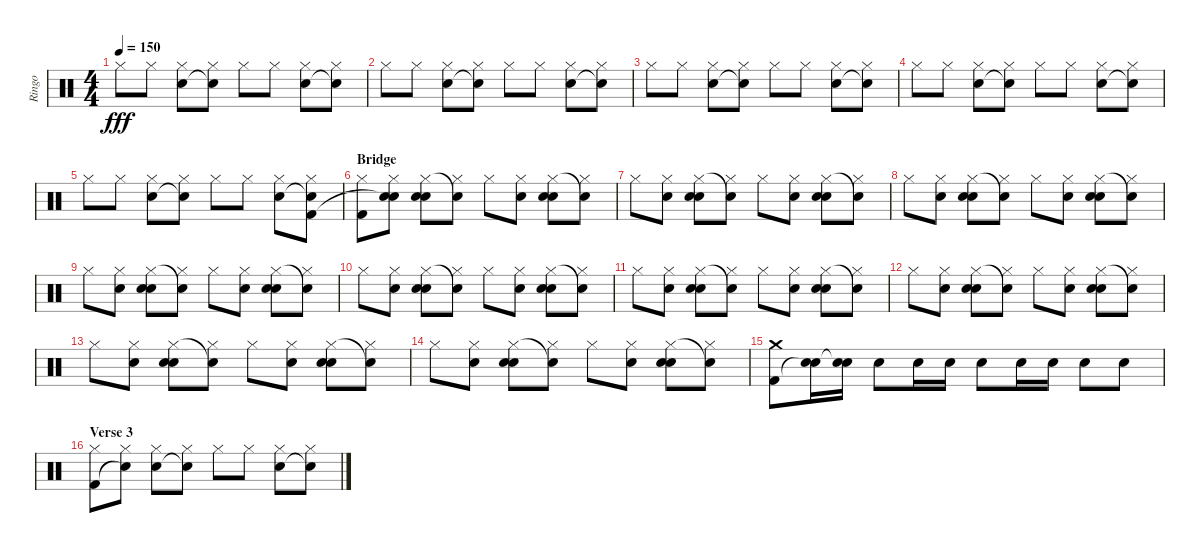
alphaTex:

\track ("Ringo" "Ringo") {instrument percussion}
\staff {score}
\articulation defaults
\ts (4 4)
\tempo 150
\clef neutral
\ks c "Hi-Hat (closed)".8{dy fff} "Hi-Hat (closed)".8
("Hi-Hat (closed)" "Snare (hit) 2").8 ("Hi-Hat (closed)" "Snare (hit)"{t}).8 "Hi-Hat (closed)".8 "Hi-Hat (closed)".8 ("Hi-Hat (closed)" "Snare (hit) 2").8 ("Hi-Hat (closed)" "Snare (hit)"{t}).8 |
"Hi-Hat (closed)".8 "Hi-Hat (closed)".8 ("Hi-Hat (closed)" "Snare (hit) 2").8 ("Hi-Hat (closed)" "Snare (hit)"{t}).8 "Hi-Hat (closed)".8 "Hi-Hat (closed)".8 ("Hi-Hat (closed)" "Snare (hit) 2").8 ("Hi-Hat (closed)" "Snare (hit)"{t}).8 |
"Hi-Hat (closed)".8 "Hi-Hat (closed)".8 ("Hi-Hat (closed)" "Snare (hit) 2").8 ("Hi-Hat (closed)" "Snare (hit)"{t}).8 "Hi-Hat (closed)".8 "Hi-Hat (closed)".8 ("Hi-Hat (closed)" "Snare (hit) 2").8 ("Hi-Hat (closed)" "Snare (hit)"{t}).8 |
"Hi-Hat (closed)".8 "Hi-Hat (closed)".8 ("Hi-Hat (closed)" "Snare (hit) 2").8 ("Hi-Hat (closed)" "Snare (hit)"{t}).8 "Hi-Hat (closed)".8 "Hi-Hat (closed)".8 ("Hi-Hat (closed)" "Snare (hit) 2").8 ("Hi-Hat (closed)" "Snare (hit)"{t}).8 |
"Hi-Hat (closed)".8 "Hi-Hat (closed)".8 ("Hi-Hat (closed)" "Snare (hit) 2").8 ("Hi-Hat (closed)" "Snare (hit)"{t}).8 "Hi-Hat (closed)".8 "Hi-Hat (closed)".8 ("Hi-Hat (closed)" "Snare (hit) 2").8 ("Hi-Hat (closed)" "Snare (hit)"{t} "Kick (hit) 2").8 |
\section ("" "Bridge")
("Hi-Hat (closed)" "Kick (hit) 2").8 ("Hand Clap (hit)" "Hi-Hat (closed)" "Snare (hit)"{t}).8 ("Hand Clap (hit)" "Hi-Hat (closed)" "Snare (hit) 2").8 ("Hi-Hat (closed)" "Snare (hit)"{t}).8 "Hi-Hat (closed)".8 ("Hand Clap (hit)" "Hi-Hat (closed)").8 ("Hand Clap (hit)" "Hi-Hat (closed)" "Snare (hit) 2").8 ("Hi-Hat (closed)" "Snare (hit)"{t}).8 |
"Hi-Hat (closed)".8 ("Hand Clap (hit)" "Hi-Hat (closed)").8 ("Hand Clap (hit)" "Hi-Hat (closed)" "Snare (hit) 2").8 ("Hi-Hat (closed)" "Snare (hit)"{t}).8 "Hi-Hat (closed)".8 ("Hand Clap (hit)" "Hi-Hat (closed)").8 ("Hand Clap (hit)" "Hi-Hat (closed)" "Snare (hit) 2").8 ("Hi-Hat (closed)" "Snare (hit)"{t}).8 |
"Hi-Hat (closed)".8 ("Hand Clap (hit)" "Hi-Hat (closed)").8 ("Hand Clap (hit)" "Hi-Hat (closed)" "Snare (hit) 2").8 ("Hi-Hat (closed)" "Snare (hit)"{t}).8 "Hi-Hat (closed)".8 ("Hand Clap (hit)" "Hi-Hat (closed)").8 ("Hand Clap (hit)" "Hi-Hat (closed)" "Snare (hit) 2").8 ("Hi-Hat (closed)" "Snare (hit)"{t}).8 |
"Hi-Hat (closed)".8 ("Hand Clap (hit)" "Hi-Hat (closed)").8 ("Hand Clap (hit)" "Hi-Hat (closed)" "Snare (hit) 2").8 ("Hi-Hat (closed)" "Snare (hit)"{t}).8 "Hi-Hat (closed)".8 ("Hand Clap (hit)" "Hi-Hat (closed)").8 ("Hand Clap (hit)" "Hi-Hat (closed)" "Snare (hit) 2").8 ("Hi-Hat (closed)" "Snare (hit)"{t}).8 |
"Hi-Hat (closed)".8 ("Hand Clap (hit)" "Hi-Hat (closed)").8 ("Hand Clap (hit)" "Hi-Hat (closed)" "Snare (hit) 2").8 ("Hi-Hat (closed)" "Snare (hit)"{t}).8 "Hi-Hat (closed)".8 ("Hand Clap (hit)" "Hi-Hat (closed)").8 ("Hand Clap (hit)" "Hi-Hat (closed)" "Snare (hit) 2").8 ("Hi-Hat (closed)" "Snare (hit)"{t}).8 |
"Hi-Hat (closed)".8 ("Hand Clap (hit)" "Hi-Hat (closed)").8 ("Hand Clap (hit)" "Hi-Hat (closed)" "Snare (hit) 2").8 ("Hi-Hat (closed)" "Snare (hit)"{t}).8 "Hi-Hat (closed)".8 ("Hand Clap (hit)" "Hi-Hat (closed)").8 ("Hand Clap (hit)" "Hi-Hat (closed)" "Snare (hit) 2").8 ("Hi-Hat (closed)" "Snare (hit)"{t}).8 |
"Hi-Hat (closed)".8 ("Hand Clap (hit)" "Hi-Hat (closed)").8 ("Hand Clap (hit)" "Hi-Hat (closed)" "Snare (hit) 2").8 ("Hi-Hat (closed)" "Snare (hit)"{t}).8 "Hi-Hat (closed)".8 ("Hand Clap (hit)" "Hi-Hat (closed)").8 ("Hand Clap (hit)" "Hi-Hat (closed)" "Snare (hit) 2").8 ("Hi-Hat (closed)" "Snare (hit)"{t}).8 |
"Hi-Hat (closed)".8 ("Hand Clap (hit)" "Hi-Hat (closed)").8 ("Hand Clap (hit)" "Hi-Hat (closed)" "Snare (hit) 2").8 ("Hi-Hat (closed)" "Snare (hit)"{t}).8 "Hi-Hat (closed)".8 ("Hand Clap (hit)" "Hi-Hat (closed)").8 ("Hand Clap (hit)" "Hi-Hat (closed)" "Snare (hit) 2").8 ("Hi-Hat (closed)" "Snare (hit)"{t}).8 |
"Hi-Hat (closed)".8 ("Hand Clap (hit)" "Hi-Hat (closed)").8 ("Hand Clap (hit)" "Hi-Hat (closed)" "Snare (hit) 2").8 ("Hi-Hat (closed)" "Snare (hit)"{t}).8 "Hi-Hat (closed)".8 ("Hand Clap (hit)" "Hi-Hat (closed)").8 ("Hand Clap (hit)" "Hi-Hat (closed)" "Snare (hit) 2").8 ("Hi-Hat (closed)" "Snare (hit)"{t}).8 |
("Crash medium (hit)" "Kick (hit) 2").8 ("Snare (hit) 2" "Snare (hit)"{t}).16 ("Snare (hit) 2" "Snare (hit)"{t}).16 "Snare (hit) 2".8 "Snare (hit) 2".16 "Snare (hit) 2".16 "Snare (hit) 2".8 "Snare (hit) 2".16 "Snare (hit) 2".16 "Snare (hit) 2".8 "Snare (hit) 2".8 |
\section ("" "Verse 3")
("Hi-Hat (closed)" "Kick (hit) 2").8 ("Hi-Hat (closed)" "Snare (hit)"{t}).8 ("Hi-Hat (closed)" "Snare (hit) 2").8 ("Hi-Hat (closed)" "Snare (hit)"{t}).8 "Hi-Hat (closed)".8 "Hi-Hat (closed)".8 ("Hi-Hat (closed)" "Snare (hit) 2").8 ("Hi-Hat (closed)" "Snare (hit)"{t}).8
